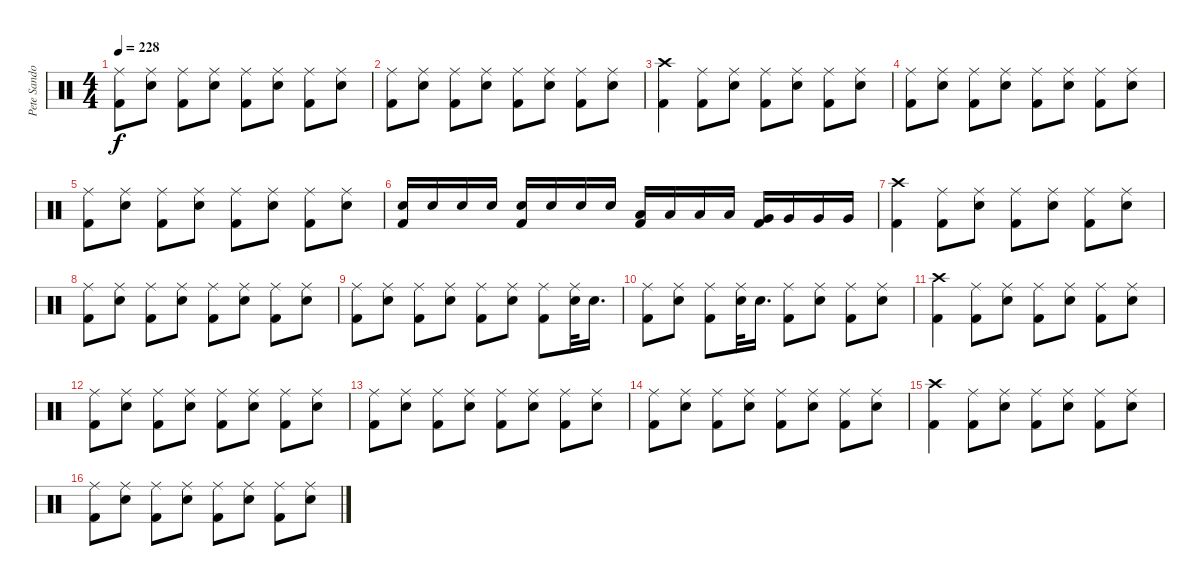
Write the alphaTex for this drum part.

\track ("Pete Sandoval" "Pete Sando") {instrument percussion}
\staff {score}
\articulation defaults
\ts (4 4)
\tempo 228
\clef neutral
\ks c
("Kick (hit) 2" "Ride (middle)").8{dy f} ("Electric Snare (hit)" "Ride (middle)").8 ("Kick (hit) 2" "Ride (middle)").8 ("Electric Snare (hit)" "Ride (middle)").8 ("Kick (hit) 2" "Ride (middle)").8 ("Electric Snare (hit)" "Ride (middle)").8 ("Kick (hit) 2" "Ride (middle)").8 ("Electric Snare (hit)" "Ride (middle)").8 |
("Kick (hit) 2" "Ride (middle)").8 ("Electric Snare (hit)" "Ride (middle)").8 ("Kick (hit) 2" "Ride (middle)").8 ("Electric Snare (hit)" "Ride (middle)").8 ("Kick (hit) 2" "Ride (middle)").8 ("Electric Snare (hit)" "Ride (middle)").8 ("Kick (hit) 2" "Ride (middle)").8 ("Electric Snare (hit)" "Ride (middle)").8 |
("Crash high (hit)" "Kick (hit) 2").4 ("Kick (hit) 2" "Ride (middle)").8 ("Electric Snare (hit)" "Ride (middle)").8 ("Kick (hit) 2" "Ride (middle)").8 ("Electric Snare (hit)" "Ride (middle)").8 ("Kick (hit) 2" "Ride (middle)").8 ("Electric Snare (hit)" "Ride (middle)").8 |
("Kick (hit) 2" "Ride (middle)").8 ("Electric Snare (hit)" "Ride (middle)").8 ("Kick (hit) 2" "Ride (middle)").8 ("Electric Snare (hit)" "Ride (middle)").8 ("Kick (hit) 2" "Ride (middle)").8 ("Electric Snare (hit)" "Ride (middle)").8 ("Kick (hit) 2" "Ride (middle)").8 ("Electric Snare (hit)" "Ride (middle)").8 |
("Kick (hit) 2" "Ride (middle)").8 ("Electric Snare (hit)" "Ride (middle)").8 ("Kick (hit) 2" "Ride (middle)").8 ("Electric Snare (hit)" "Ride (middle)").8 ("Kick (hit) 2" "Ride (middle)").8 ("Electric Snare (hit)" "Ride (middle)").8 ("Kick (hit) 2" "Ride (middle)").8 ("Electric Snare (hit)" "Ride (middle)").8 |
("Kick (hit) 2" "Electric Snare (hit)").16 "Electric Snare (hit)".16 "Electric Snare (hit)".16 "Electric Snare (hit)".16 ("Kick (hit) 2" "Electric Snare (hit)").16 "Electric Snare (hit)".16 "Electric Snare (hit)".16 "Electric Snare (hit)".16 ("Kick (hit) 2" "Low Tom (hit)").16 "Low Tom (hit)".16 "Low Tom (hit)".16 "Low Tom (hit)".16 ("Kick (hit) 2" "Very Low Tom (hit)").16 "Very Low Tom (hit)".16 "Very Low Tom (hit)".16 "Very Low Tom (hit)".16 |
("Crash high (hit)" "Kick (hit) 2").4 ("Kick (hit) 2" "Ride (middle)").8 ("Electric Snare (hit)" "Ride (middle)").8 ("Kick (hit) 2" "Ride (middle)").8 ("Electric Snare (hit)" "Ride (middle)").8 ("Kick (hit) 2" "Ride (middle)").8 ("Electric Snare (hit)" "Ride (middle)").8 |
("Kick (hit) 2" "Ride (middle)").8 ("Electric Snare (hit)" "Ride (middle)").8 ("Kick (hit) 2" "Ride (middle)").8 ("Electric Snare (hit)" "Ride (middle)").8 ("Kick (hit) 2" "Ride (middle)").8 ("Electric Snare (hit)" "Ride (middle)").8 ("Kick (hit) 2" "Ride (middle)").8 ("Electric Snare (hit)" "Ride (middle)").8 |
("Kick (hit) 2" "Ride (middle)").8 ("Electric Snare (hit)" "Ride (middle)").8 ("Kick (hit) 2" "Ride (middle)").8 ("Electric Snare (hit)" "Ride (middle)").8 ("Kick (hit) 2" "Ride (middle)").8 ("Electric Snare (hit)" "Ride (middle)").8 ("Kick (hit) 2" "Ride (middle)").8 ("Electric Snare (hit)" "Ride (middle)").32 "Electric Snare (hit)".16{d} |
("Kick (hit) 2" "Ride (middle)").8 ("Electric Snare (hit)" "Ride (middle)").8 ("Kick (hit) 2" "Ride (middle)").8 ("Electric Snare (hit)" "Ride (middle)").32 "Electric Snare (hit)".16{d} ("Kick (hit) 2" "Ride (middle)").8 ("Electric Snare (hit)" "Ride (middle)").8 ("Kick (hit) 2" "Ride (middle)").8 ("Electric Snare (hit)" "Ride (middle)").8 |
("Crash high (hit)" "Kick (hit) 2").4 ("Kick (hit) 2" "Ride (middle)").8 ("Electric Snare (hit)" "Ride (middle)").8 ("Kick (hit) 2" "Ride (middle)").8 ("Electric Snare (hit)" "Ride (middle)").8 ("Kick (hit) 2" "Ride (middle)").8 ("Electric Snare (hit)" "Ride (middle)").8 |
("Kick (hit) 2" "Ride (middle)").8 ("Electric Snare (hit)" "Ride (middle)").8 ("Kick (hit) 2" "Ride (middle)").8 ("Electric Snare (hit)" "Ride (middle)").8 ("Kick (hit) 2" "Ride (middle)").8 ("Electric Snare (hit)" "Ride (middle)").8 ("Kick (hit) 2" "Ride (middle)").8 ("Electric Snare (hit)" "Ride (middle)").8 |
("Kick (hit) 2" "Ride (middle)").8 ("Electric Snare (hit)" "Ride (middle)").8 ("Kick (hit) 2" "Ride (middle)").8 ("Electric Snare (hit)" "Ride (middle)").8 ("Kick (hit) 2" "Ride (middle)").8 ("Electric Snare (hit)" "Ride (middle)").8 ("Kick (hit) 2" "Ride (middle)").8 ("Electric Snare (hit)" "Ride (middle)").8 |
("Kick (hit) 2" "Ride (middle)").8 ("Electric Snare (hit)" "Ride (middle)").8 ("Kick (hit) 2" "Ride (middle)").8 ("Electric Snare (hit)" "Ride (middle)").8 ("Kick (hit) 2" "Ride (middle)").8 ("Electric Snare (hit)" "Ride (middle)").8 ("Kick (hit) 2" "Ride (middle)").8 ("Electric Snare (hit)" "Ride (middle)").8 |
("Crash high (hit)" "Kick (hit) 2").4 ("Kick (hit) 2" "Ride (middle)").8 ("Electric Snare (hit)" "Ride (middle)").8 ("Kick (hit) 2" "Ride (middle)").8 ("Electric Snare (hit)" "Ride (middle)").8 ("Kick (hit) 2" "Ride (middle)").8 ("Electric Snare (hit)" "Ride (middle)").8 |
("Kick (hit) 2" "Ride (middle)").8 ("Electric Snare (hit)" "Ride (middle)").8 ("Kick (hit) 2" "Ride (middle)").8 ("Electric Snare (hit)" "Ride (middle)").8 ("Kick (hit) 2" "Ride (middle)").8 ("Electric Snare (hit)" "Ride (middle)").8 ("Kick (hit) 2" "Ride (middle)").8 ("Electric Snare (hit)" "Ride (middle)").8
